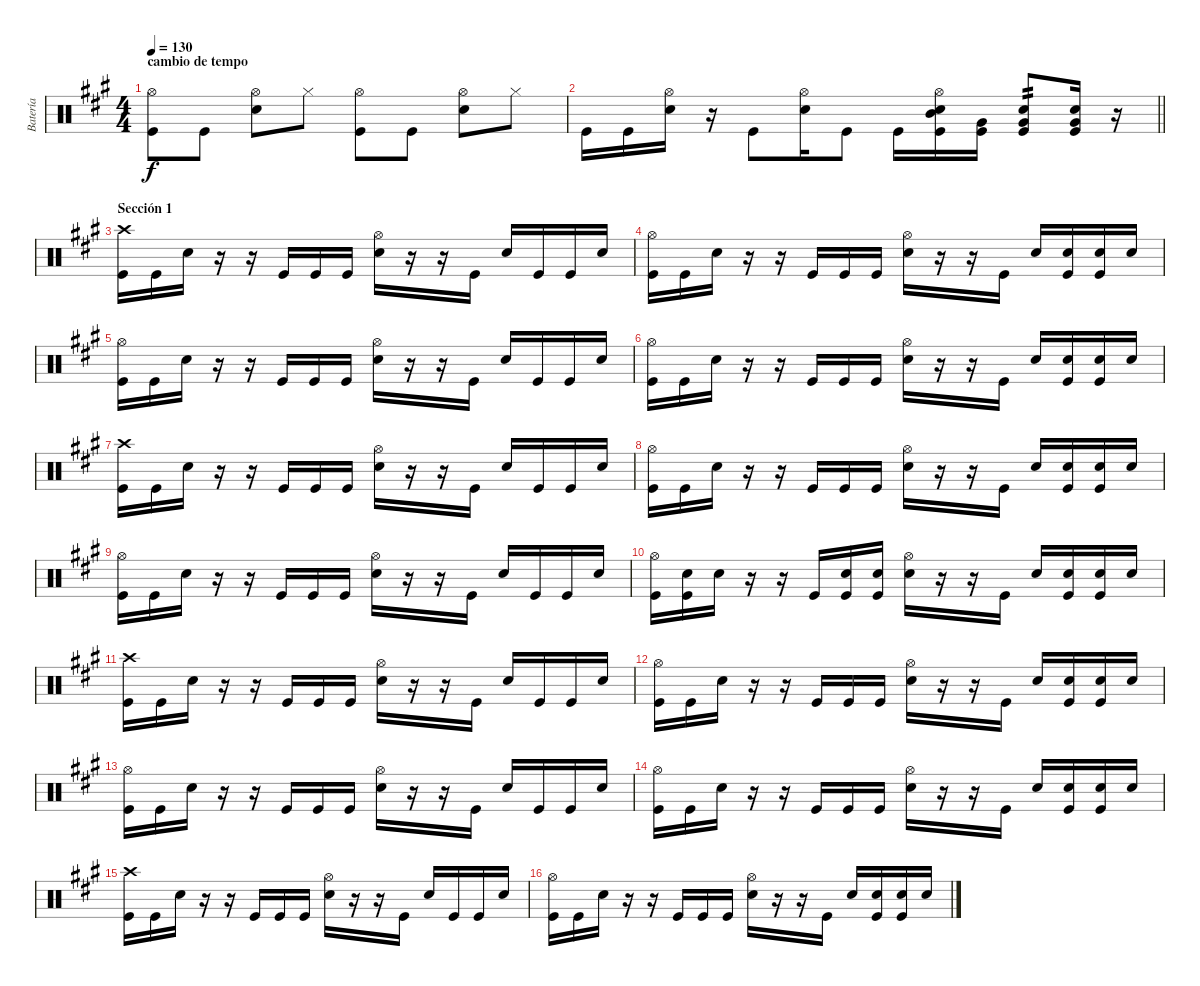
\track ("Batería" "Batería") {instrument percussion}
\staff {score}
\articulation defaults
\ts (4 4)
\section ("" "cambio de tempo")
\tempo 130
\clef neutral
\ks a
("Hi-Hat (open)" "Kick (hit)").8{dy f} "Kick (hit)".8 ("Hi-Hat (open)" "Electric Snare (hit)").8 "Hi-Hat (closed)".8 ("Hi-Hat (open)" "Kick (hit)").8 "Kick (hit)".8 ("Hi-Hat (open)" "Electric Snare (hit)").8 "Hi-Hat (closed)".8 |
\barLineRight lightlight "Kick (hit)".16 "Kick (hit)".16
("Hi-Hat (open)" "Electric Snare (hit)").16 r.16 "Kick (hit)".8 ("Hi-Hat (open)" "Electric Snare (hit)").16 "Kick (hit)".8 "Kick (hit)".16 ("Hi-Hat (open)" "Mid Tom (hit)" "Electric Snare (hit)" "Kick (hit)").16 ("Very Low Tom (hit)" "Kick (hit)").16 ("Very Low Tom (hit)" "Electric Snare (hit)" "Kick (hit)").8{tp 2} ("Very Low Tom (hit)" "Electric Snare (hit)" "Kick (hit)").16 r.16 |
\section ("" "Sección 1")
("Crash high (hit)" "Kick (hit)").16 "Kick (hit)".16 "Electric Snare (hit)".16 r.16 r.16 "Kick (hit)".16 "Kick (hit)".16 "Kick (hit)".16 ("Hi-Hat (open)" "Electric Snare (hit)").16 r.16 r.16 "Kick (hit)".16 "Electric Snare (hit)".16 "Kick (hit)".16 "Kick (hit)".16 "Electric Snare (hit)".16 |
("Hi-Hat (open)" "Kick (hit)").16 "Kick (hit)".16 "Electric Snare (hit)".16 r.16 r.16 "Kick (hit)".16 "Kick (hit)".16 "Kick (hit)".16 ("Hi-Hat (open)" "Electric Snare (hit)").16 r.16 r.16 "Kick (hit)".16 "Electric Snare (hit)".16 ("Electric Snare (hit)" "Kick (hit)").16 ("Electric Snare (hit)" "Kick (hit)").16 "Electric Snare (hit)".16 |
("Hi-Hat (open)" "Kick (hit)").16 "Kick (hit)".16 "Electric Snare (hit)".16 r.16 r.16 "Kick (hit)".16 "Kick (hit)".16 "Kick (hit)".16 ("Hi-Hat (open)" "Electric Snare (hit)").16 r.16 r.16 "Kick (hit)".16 "Electric Snare (hit)".16 "Kick (hit)".16 "Kick (hit)".16 "Electric Snare (hit)".16 |
("Hi-Hat (open)" "Kick (hit)").16 "Kick (hit)".16 "Electric Snare (hit)".16 r.16 r.16 "Kick (hit)".16 "Kick (hit)".16 "Kick (hit)".16 ("Hi-Hat (open)" "Electric Snare (hit)").16 r.16 r.16 "Kick (hit)".16 "Electric Snare (hit)".16 ("Electric Snare (hit)" "Kick (hit)").16 ("Electric Snare (hit)" "Kick (hit)").16 "Electric Snare (hit)".16 |
("Crash high (hit)" "Kick (hit)").16 "Kick (hit)".16 "Electric Snare (hit)".16 r.16 r.16 "Kick (hit)".16 "Kick (hit)".16 "Kick (hit)".16 ("Hi-Hat (open)" "Electric Snare (hit)").16 r.16 r.16 "Kick (hit)".16 "Electric Snare (hit)".16 "Kick (hit)".16 "Kick (hit)".16 "Electric Snare (hit)".16 |
("Hi-Hat (open)" "Kick (hit)").16 "Kick (hit)".16 "Electric Snare (hit)".16 r.16 r.16 "Kick (hit)".16 "Kick (hit)".16 "Kick (hit)".16 ("Hi-Hat (open)" "Electric Snare (hit)").16 r.16 r.16 "Kick (hit)".16 "Electric Snare (hit)".16 ("Electric Snare (hit)" "Kick (hit)").16 ("Electric Snare (hit)" "Kick (hit)").16 "Electric Snare (hit)".16 |
("Hi-Hat (open)" "Kick (hit)").16 "Kick (hit)".16 "Electric Snare (hit)".16 r.16 r.16 "Kick (hit)".16 "Kick (hit)".16 "Kick (hit)".16 ("Hi-Hat (open)" "Electric Snare (hit)").16 r.16 r.16 "Kick (hit)".16 "Electric Snare (hit)".16 "Kick (hit)".16 "Kick (hit)".16 "Electric Snare (hit)".16 |
("Hi-Hat (open)" "Kick (hit)").16 ("Electric Snare (hit)" "Kick (hit)").16 "Electric Snare (hit)".16 r.16 r.16 "Kick (hit)".16 ("Electric Snare (hit)" "Kick (hit)").16 ("Electric Snare (hit)" "Kick (hit)").16 ("Hi-Hat (open)" "Electric Snare (hit)").16 r.16 r.16 "Kick (hit)".16 "Electric Snare (hit)".16 ("Electric Snare (hit)" "Kick (hit)").16 ("Electric Snare (hit)" "Kick (hit)").16 "Electric Snare (hit)".16 |
("Crash high (hit)" "Kick (hit)").16 "Kick (hit)".16 "Electric Snare (hit)".16 r.16 r.16 "Kick (hit)".16 "Kick (hit)".16 "Kick (hit)".16 ("Hi-Hat (open)" "Electric Snare (hit)").16 r.16 r.16 "Kick (hit)".16 "Electric Snare (hit)".16 "Kick (hit)".16 "Kick (hit)".16 "Electric Snare (hit)".16 |
("Hi-Hat (open)" "Kick (hit)").16 "Kick (hit)".16 "Electric Snare (hit)".16 r.16 r.16 "Kick (hit)".16 "Kick (hit)".16 "Kick (hit)".16 ("Hi-Hat (open)" "Electric Snare (hit)").16 r.16 r.16 "Kick (hit)".16 "Electric Snare (hit)".16 ("Electric Snare (hit)" "Kick (hit)").16 ("Electric Snare (hit)" "Kick (hit)").16 "Electric Snare (hit)".16 |
("Hi-Hat (open)" "Kick (hit)").16 "Kick (hit)".16 "Electric Snare (hit)".16 r.16 r.16 "Kick (hit)".16 "Kick (hit)".16 "Kick (hit)".16 ("Hi-Hat (open)" "Electric Snare (hit)").16 r.16 r.16 "Kick (hit)".16 "Electric Snare (hit)".16 "Kick (hit)".16 "Kick (hit)".16 "Electric Snare (hit)".16 |
("Hi-Hat (open)" "Kick (hit)").16 "Kick (hit)".16 "Electric Snare (hit)".16 r.16 r.16 "Kick (hit)".16 "Kick (hit)".16 "Kick (hit)".16 ("Hi-Hat (open)" "Electric Snare (hit)").16 r.16 r.16 "Kick (hit)".16 "Electric Snare (hit)".16 ("Electric Snare (hit)" "Kick (hit)").16 ("Electric Snare (hit)" "Kick (hit)").16 "Electric Snare (hit)".16 |
("Crash high (hit)" "Kick (hit)").16 "Kick (hit)".16 "Electric Snare (hit)".16 r.16 r.16 "Kick (hit)".16 "Kick (hit)".16 "Kick (hit)".16 ("Hi-Hat (open)" "Electric Snare (hit)").16 r.16 r.16 "Kick (hit)".16 "Electric Snare (hit)".16 "Kick (hit)".16 "Kick (hit)".16 "Electric Snare (hit)".16 |
("Hi-Hat (open)" "Kick (hit)").16 "Kick (hit)".16 "Electric Snare (hit)".16 r.16 r.16 "Kick (hit)".16 "Kick (hit)".16 "Kick (hit)".16 ("Hi-Hat (open)" "Electric Snare (hit)").16 r.16 r.16 "Kick (hit)".16 "Electric Snare (hit)".16 ("Electric Snare (hit)" "Kick (hit)").16 ("Electric Snare (hit)" "Kick (hit)").16 "Electric Snare (hit)".16
